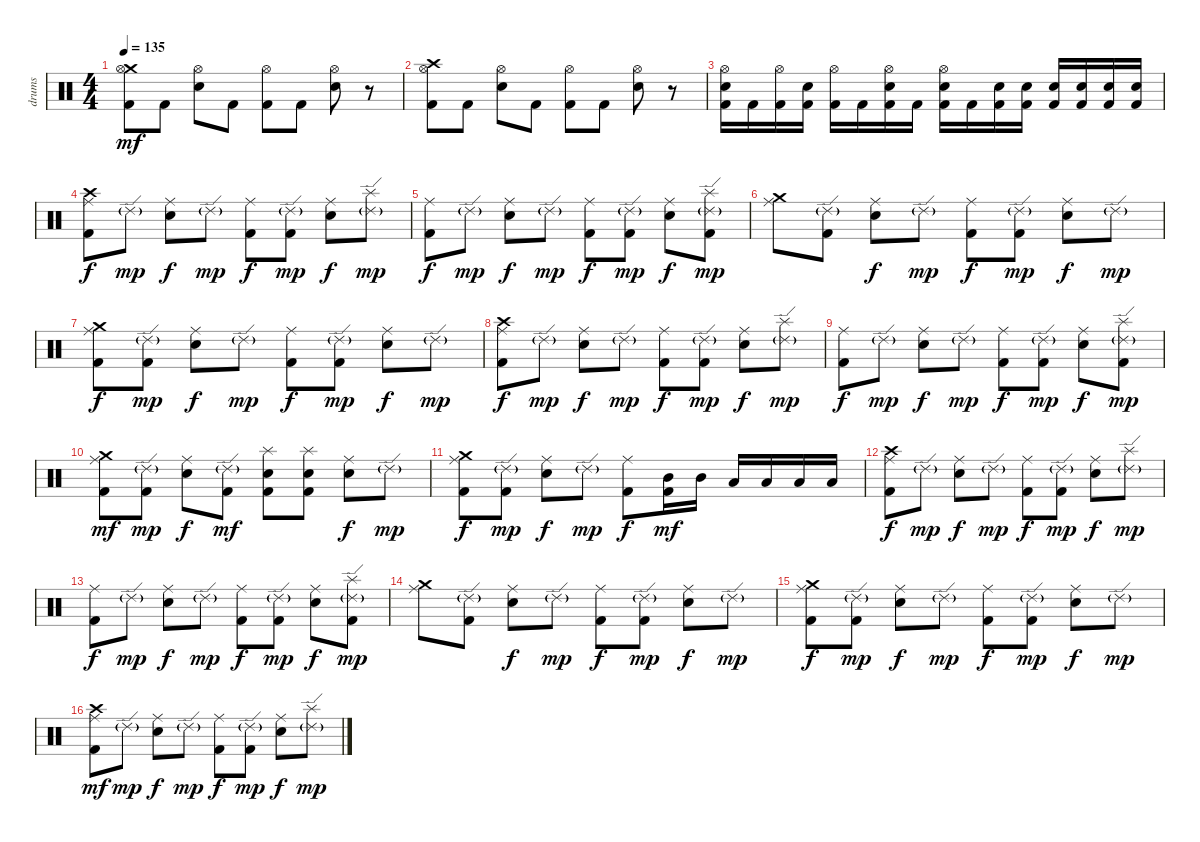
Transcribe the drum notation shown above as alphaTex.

\track ("drums" "drums") {instrument percussion}
\staff {score}
\articulation defaults
\ts (4 4)
\tempo 135
\clef neutral
\ks c
("Crash medium (hit)" "Hi-Hat (open)" "Kick (hit) 2").8{dy mf} "Kick (hit) 2".8 ("Hi-Hat (open)" "Snare (hit) 2").8 "Kick (hit) 2".8 ("Hi-Hat (open)" "Kick (hit) 2").8 "Kick (hit) 2".8 ("Hi-Hat (open)" "Snare (hit) 2").8 r.8 |
("Crash high (hit)" "Hi-Hat (open)" "Kick (hit) 2").8 "Kick (hit) 2".8 ("Hi-Hat (open)" "Snare (hit) 2").8 "Kick (hit) 2".8 ("Hi-Hat (open)" "Kick (hit) 2").8 "Kick (hit) 2".8 ("Hi-Hat (open)" "Snare (hit) 2").8 r.8 |
("Hi-Hat (open)" "Snare (hit) 2" "Kick (hit) 2").16 "Kick (hit) 2".16 ("Hi-Hat (open)" "Kick (hit) 2").16 ("Snare (hit) 2" "Kick (hit) 2").16 ("Hi-Hat (open)" "Kick (hit) 2").16 "Kick (hit) 2".16 ("Hi-Hat (open)" "Snare (hit) 2" "Kick (hit) 2").16 "Kick (hit) 2".16 ("Hi-Hat (open)" "Snare (hit) 2" "Kick (hit) 2").16 "Kick (hit) 2".16 ("Snare (hit) 2" "Kick (hit) 2").16 ("Snare (hit) 2" "Kick (hit) 2").16 ("Snare (hit) 2" "Kick (hit) 2").16 ("Snare (hit) 2" "Kick (hit) 2").16 ("Snare (hit) 2" "Kick (hit) 2").16 ("Snare (hit) 2" "Kick (hit) 2").16 |
("Crash high (hit)" "Ride (middle)" "Kick (hit) 2").8{dy f} "Ride (edge) 2"{g}.8{dy mp} ("Ride (middle)" "Snare (hit) 2").8{dy f} "Ride (edge) 2"{g}.8{dy mp} ("Ride (middle)" "Kick (hit) 2").8{dy f} ("Ride (edge) 2"{g} "Kick (hit) 2").8{dy mp} ("Ride (middle)" "Snare (hit) 2").8{dy f} ("Splash (hit)" "Ride (edge) 2"{g}).8{dy mp} |
("Ride (middle)" "Kick (hit) 2").8{dy f} "Ride (edge) 2"{g}.8{dy mp} ("Ride (middle)" "Snare (hit) 2").8{dy f} "Ride (edge) 2"{g}.8{dy mp} ("Ride (middle)" "Kick (hit) 2").8{dy f} ("Ride (edge) 2"{g} "Kick (hit) 2").8{dy mp} ("Ride (middle)" "Snare (hit) 2").8{dy f} ("Splash (hit)" "Ride (edge) 2"{g} "Kick (hit) 2").8{dy mp} |
("Crash medium (hit)" "Ride (middle)").8 ("Ride (edge) 2"{g} "Kick (hit) 2").8 ("Ride (middle)" "Snare (hit) 2").8{dy f} "Ride (edge) 2"{g}.8{dy mp} ("Ride (middle)" "Kick (hit) 2").8{dy f} ("Ride (edge) 2"{g} "Kick (hit) 2").8{dy mp} ("Ride (middle)" "Snare (hit) 2").8{dy f} "Ride (edge) 2"{g}.8{dy mp} |
("Crash medium (hit)" "Ride (middle)" "Kick (hit) 2").8{dy f} ("Ride (edge) 2"{g} "Kick (hit) 2").8{dy mp} ("Ride (middle)" "Snare (hit) 2").8{dy f} "Ride (edge) 2"{g}.8{dy mp} ("Ride (middle)" "Kick (hit) 2").8{dy f} ("Ride (edge) 2"{g} "Kick (hit) 2").8{dy mp} ("Ride (middle)" "Snare (hit) 2").8{dy f} "Ride (edge) 2"{g}.8{dy mp} |
("Crash high (hit)" "Ride (middle)" "Kick (hit) 2").8{dy f} "Ride (edge) 2"{g}.8{dy mp} ("Ride (middle)" "Snare (hit) 2").8{dy f} "Ride (edge) 2"{g}.8{dy mp} ("Ride (middle)" "Kick (hit) 2").8{dy f} ("Ride (edge) 2"{g} "Kick (hit) 2").8{dy mp} ("Ride (middle)" "Snare (hit) 2").8{dy f} ("Splash (hit)" "Ride (edge) 2"{g}).8{dy mp} |
("Ride (middle)" "Kick (hit) 2").8{dy f} "Ride (edge) 2"{g}.8{dy mp} ("Ride (middle)" "Snare (hit) 2").8{dy f} "Ride (edge) 2"{g}.8{dy mp} ("Ride (middle)" "Kick (hit) 2").8{dy f} ("Ride (edge) 2"{g} "Kick (hit) 2").8{dy mp} ("Ride (middle)" "Snare (hit) 2").8{dy f} ("Splash (hit)" "Ride (edge) 2"{g} "Kick (hit) 2").8{dy mp} |
("Crash medium (hit)" "Ride (middle)" "Kick (hit) 2").8{dy mf} ("Ride (edge) 2"{g} "Kick (hit) 2").8{dy mp} ("Ride (middle)" "Snare (hit) 2").8{dy f} ("Ride (edge) 2"{g} "Kick (hit) 2").8{dy mf} ("Splash (hit)" "Snare (hit) 2" "Kick (hit) 2").8 ("Splash (hit)" "Snare (hit) 2" "Kick (hit) 2").8 ("Ride (middle)" "Snare (hit) 2").8{dy f} "Ride (edge) 2"{g}.8{dy mp} |
("Crash medium (hit)" "Ride (middle)" "Kick (hit) 2").8{dy f} ("Ride (edge) 2"{g} "Kick (hit) 2").8{dy mp} ("Ride (middle)" "Snare (hit) 2").8{dy f} "Ride (edge) 2"{g}.8{dy mp} ("Ride (middle)" "Kick (hit) 2").8{dy f} ("Mid Tom (hit)" "Kick (hit) 2").16{dy mf} "Mid Tom (hit)".16 "Low Tom (hit)".16 "Low Tom (hit)".16 "Low Floor Tom (hit)".16 "Low Floor Tom (hit)".16 |
("Crash high (hit)" "Ride (middle)" "Kick (hit) 2").8{dy f} "Ride (edge) 2"{g}.8{dy mp} ("Ride (middle)" "Snare (hit) 2").8{dy f} "Ride (edge) 2"{g}.8{dy mp} ("Ride (middle)" "Kick (hit) 2").8{dy f} ("Ride (edge) 2"{g} "Kick (hit) 2").8{dy mp} ("Ride (middle)" "Snare (hit) 2").8{dy f} ("Splash (hit)" "Ride (edge) 2"{g}).8{dy mp} |
("Ride (middle)" "Kick (hit) 2").8{dy f} "Ride (edge) 2"{g}.8{dy mp} ("Ride (middle)" "Snare (hit) 2").8{dy f} "Ride (edge) 2"{g}.8{dy mp} ("Ride (middle)" "Kick (hit) 2").8{dy f} ("Ride (edge) 2"{g} "Kick (hit) 2").8{dy mp} ("Ride (middle)" "Snare (hit) 2").8{dy f} ("Splash (hit)" "Ride (edge) 2"{g} "Kick (hit) 2").8{dy mp} |
("Crash medium (hit)" "Ride (middle)").8 ("Ride (edge) 2"{g} "Kick (hit) 2").8 ("Ride (middle)" "Snare (hit) 2").8{dy f} "Ride (edge) 2"{g}.8{dy mp} ("Ride (middle)" "Kick (hit) 2").8{dy f} ("Ride (edge) 2"{g} "Kick (hit) 2").8{dy mp} ("Ride (middle)" "Snare (hit) 2").8{dy f} "Ride (edge) 2"{g}.8{dy mp} |
("Crash medium (hit)" "Ride (middle)" "Kick (hit) 2").8{dy f} ("Ride (edge) 2"{g} "Kick (hit) 2").8{dy mp} ("Ride (middle)" "Snare (hit) 2").8{dy f} "Ride (edge) 2"{g}.8{dy mp} ("Ride (middle)" "Kick (hit) 2").8{dy f} ("Ride (edge) 2"{g} "Kick (hit) 2").8{dy mp} ("Ride (middle)" "Snare (hit) 2").8{dy f} "Ride (edge) 2"{g}.8{dy mp} |
("Crash high (hit)" "Ride (middle)" "Kick (hit) 2").8{dy mf} "Ride (edge) 2"{g}.8{dy mp} ("Ride (middle)" "Snare (hit) 2").8{dy f} "Ride (edge) 2"{g}.8{dy mp} ("Ride (middle)" "Kick (hit) 2").8{dy f} ("Ride (edge) 2"{g} "Kick (hit) 2").8{dy mp} ("Ride (middle)" "Snare (hit) 2").8{dy f} ("Splash (hit)" "Ride (edge) 2"{g}).8{dy mp}
